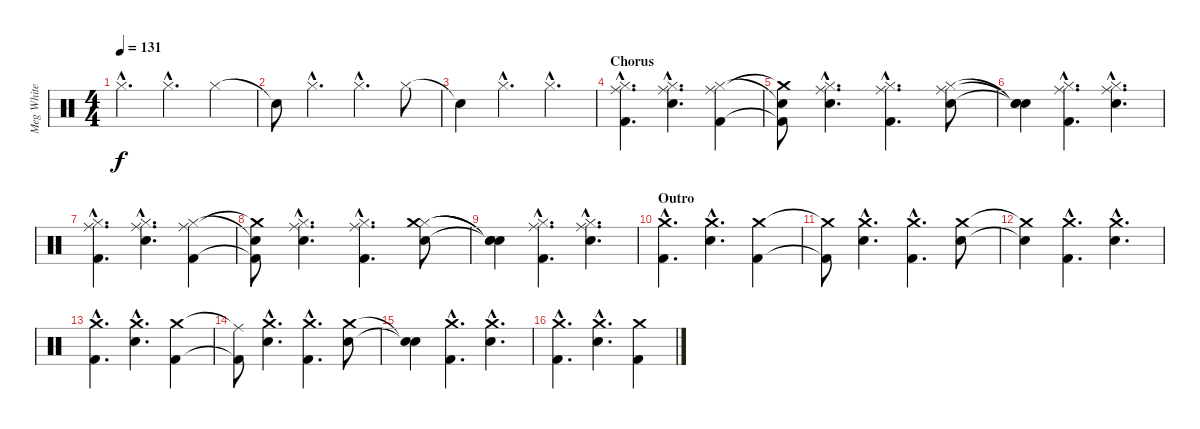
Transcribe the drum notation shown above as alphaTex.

\track ("Meg White" "Meg White") {instrument percussion}
\staff {score}
\articulation defaults
\ts (4 4)
\tempo 131
\clef neutral
\ks c "Hi-Hat (closed)"{hac}.4{d dy f} "Hi-Hat (closed)"{hac}.4{d} "Hi-Hat (closed)".4
|
"Snare (hit)"{t}.8 "Hi-Hat (closed)"{hac}.4{d} "Hi-Hat (closed)"{hac}.4{d} "Hi-Hat (closed)".8 |
"Snare (hit)"{t}.4 "Hi-Hat (closed)"{hac}.4{d} "Hi-Hat (closed)"{hac}.4{d} |
\section ("" "Chorus")
("Kick (hit) 2"{hac} "Hi-Hat (closed)"{hac} "Ride (middle)"{hac}).4{d} ("Electric Snare (hit)"{hac} "Hi-Hat (closed)"{hac} "Ride (middle)"{hac}).4{d} ("Kick (hit) 2" "Hi-Hat (closed)" "Ride (middle)").4 |
("Kick (hit) 2"{t} "Snare (hit)"{t} "Crash medium (hit)"{t}).8 ("Electric Snare (hit)"{hac} "Hi-Hat (closed)"{hac} "Ride (middle)"{hac}).4{d} ("Kick (hit) 2"{hac} "Hi-Hat (closed)"{hac} "Ride (middle)"{hac}).4{d} ("Electric Snare (hit)" "Hi-Hat (closed)" "Ride (middle)").8 |
("Snare (hit)"{t} "Snare (hit)"{t} "Snare (hit)"{t}).4 ("Kick (hit) 2"{hac} "Hi-Hat (closed)"{hac} "Ride (middle)"{hac}).4{d} ("Electric Snare (hit)"{hac} "Hi-Hat (closed)"{hac} "Ride (middle)"{hac}).4{d} |
("Kick (hit) 2"{hac} "Hi-Hat (closed)"{hac} "Ride (middle)"{hac}).4{d} ("Electric Snare (hit)"{hac} "Hi-Hat (closed)"{hac} "Ride (middle)"{hac}).4{d} ("Kick (hit) 2" "Hi-Hat (closed)" "Ride (middle)").4 |
("Kick (hit) 2"{t} "Snare (hit)"{t} "Crash medium (hit)"{t}).8 ("Electric Snare (hit)"{hac} "Hi-Hat (closed)"{hac} "Ride (middle)"{hac}).4{d} ("Kick (hit) 2"{hac} "Hi-Hat (closed)"{hac} "Ride (middle)"{hac}).4{d} ("Electric Snare (hit)" "Hi-Hat (closed)" "Crash medium (hit)").8 |
("Snare (hit)"{t} "Snare (hit)"{t} "Snare (hit)"{t}).4 ("Kick (hit) 2"{hac} "Hi-Hat (closed)"{hac} "Ride (middle)"{hac}).4{d} ("Electric Snare (hit)"{hac} "Hi-Hat (closed)"{hac} "Ride (middle)"{hac}).4{d} |
\section ("" "Outro")
("Kick (hit) 2"{hac} "Crash medium (hit)"{hac}).4{d} ("Electric Snare (hit)"{hac} "Crash medium (hit)"{hac}).4{d} ("Kick (hit) 2" "Crash medium (hit)").4 |
("Kick (hit) 2"{t} "Crash medium (hit)"{t}).8 ("Electric Snare (hit)"{hac} "Crash medium (hit)"{hac}).4{d} ("Kick (hit) 2"{hac} "Crash medium (hit)"{hac}).4{d} ("Electric Snare (hit)" "Crash medium (hit)").8 |
("Snare (hit)"{t} "Crash medium (hit)"{t}).4 ("Kick (hit) 2"{hac} "Crash medium (hit)"{hac}).4{d} ("Electric Snare (hit)"{hac} "Crash medium (hit)"{hac}).4{d} |
("Kick (hit) 2"{hac} "Crash medium (hit)"{hac}).4{d} ("Electric Snare (hit)"{hac} "Crash medium (hit)"{hac}).4{d} ("Kick (hit) 2" "Crash medium (hit)").4 |
("Kick (hit) 2"{t} "Ride (middle)"{t}).8 ("Electric Snare (hit)"{hac} "Crash medium (hit)"{hac}).4{d} ("Kick (hit) 2"{hac} "Crash medium (hit)"{hac}).4{d} ("Electric Snare (hit)" "Crash medium (hit)").8 |
("Snare (hit)"{t} "Snare (hit)"{t}).4 ("Kick (hit) 2"{hac} "Crash medium (hit)"{hac}).4{d} ("Electric Snare (hit)"{hac} "Crash medium (hit)"{hac}).4{d} |
("Kick (hit) 2"{hac} "Crash medium (hit)"{hac}).4{d} ("Electric Snare (hit)"{hac} "Crash medium (hit)"{hac}).4{d} ("Kick (hit) 2" "Crash medium (hit)").4
